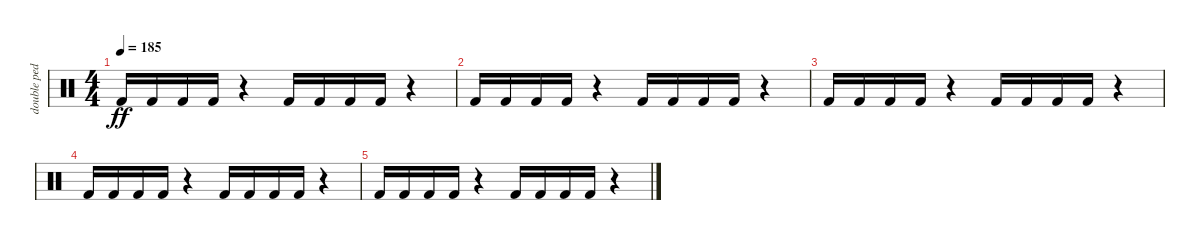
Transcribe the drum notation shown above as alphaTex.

\track ("double pedale" "double ped") {instrument percussion}
\staff {score}
\articulation defaults
\ts (4 4)
\tempo 185
\clef neutral
\ks c "Kick (hit) 2".16{dy ff} "Kick (hit) 2".16 "Kick (hit) 2".16 "Kick (hit) 2".16
r.4 "Kick (hit) 2".16 "Kick (hit) 2".16 "Kick (hit) 2".16 "Kick (hit) 2".16 r.4 |
"Kick (hit) 2".16 "Kick (hit) 2".16 "Kick (hit) 2".16 "Kick (hit) 2".16 r.4 "Kick (hit) 2".16 "Kick (hit) 2".16 "Kick (hit) 2".16 "Kick (hit) 2".16 r.4 |
"Kick (hit) 2".16 "Kick (hit) 2".16 "Kick (hit) 2".16 "Kick (hit) 2".16 r.4 "Kick (hit) 2".16 "Kick (hit) 2".16 "Kick (hit) 2".16 "Kick (hit) 2".16 r.4 |
"Kick (hit) 2".16 "Kick (hit) 2".16 "Kick (hit) 2".16 "Kick (hit) 2".16 r.4 "Kick (hit) 2".16 "Kick (hit) 2".16 "Kick (hit) 2".16 "Kick (hit) 2".16 r.4 |
"Kick (hit) 2".16 "Kick (hit) 2".16 "Kick (hit) 2".16 "Kick (hit) 2".16 r.4 "Kick (hit) 2".16 "Kick (hit) 2".16 "Kick (hit) 2".16 "Kick (hit) 2".16 r.4
